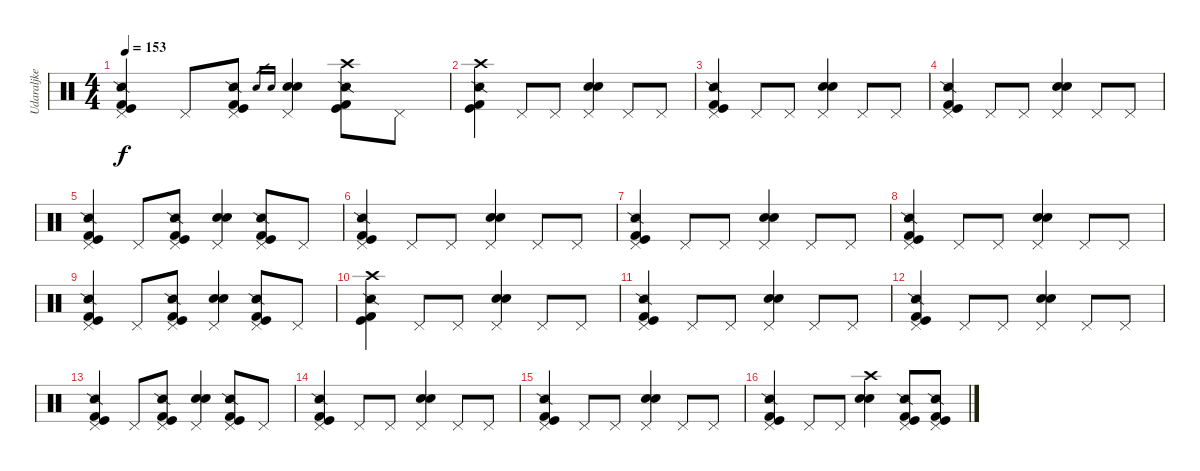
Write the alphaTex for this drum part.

\track ("Udaraljke" "Udaraljke") {instrument percussion}
\staff {score}
\articulation defaults
\ts (4 4)
\tempo 153
\clef neutral
\ks c
("Pedal Hi-Hat (hit)" "Kick (hit) 2" "Kick (hit)" "Snare (side stick) 2").4{dy f} "Pedal Hi-Hat (hit)".8 ("Pedal Hi-Hat (hit)" "Kick (hit) 2" "Kick (hit)" "Snare (side stick) 2").8 "Electric Snare (hit)".16{gr} "Snare (hit) 2".16{gr} ("Pedal Hi-Hat (hit)" "Electric Snare (hit)" "Snare (hit) 2").4 ("Crash high (hit)" "Kick (hit) 2" "Kick (hit)" "Snare (side stick) 2").8 "Pedal Hi-Hat (hit)".8 |
("Crash high (hit)" "Kick (hit) 2" "Kick (hit)" "Snare (side stick) 2").4 "Pedal Hi-Hat (hit)".8 "Pedal Hi-Hat (hit)".8 ("Pedal Hi-Hat (hit)" "Electric Snare (hit)" "Snare (hit) 2").4 "Pedal Hi-Hat (hit)".8 "Pedal Hi-Hat (hit)".8 |
("Pedal Hi-Hat (hit)" "Kick (hit) 2" "Kick (hit)" "Snare (side stick) 2").4 "Pedal Hi-Hat (hit)".8 "Pedal Hi-Hat (hit)".8 ("Pedal Hi-Hat (hit)" "Electric Snare (hit)" "Snare (hit) 2").4 "Pedal Hi-Hat (hit)".8 "Pedal Hi-Hat (hit)".8 |
("Pedal Hi-Hat (hit)" "Kick (hit) 2" "Kick (hit)" "Snare (side stick) 2").4 "Pedal Hi-Hat (hit)".8 "Pedal Hi-Hat (hit)".8 ("Pedal Hi-Hat (hit)" "Electric Snare (hit)" "Snare (hit) 2").4 "Pedal Hi-Hat (hit)".8 "Pedal Hi-Hat (hit)".8 |
("Pedal Hi-Hat (hit)" "Kick (hit) 2" "Kick (hit)" "Snare (side stick) 2").4 "Pedal Hi-Hat (hit)".8 ("Pedal Hi-Hat (hit)" "Kick (hit) 2" "Kick (hit)" "Snare (side stick) 2").8 ("Pedal Hi-Hat (hit)" "Electric Snare (hit)" "Snare (hit) 2").4 ("Pedal Hi-Hat (hit)" "Kick (hit) 2" "Kick (hit)" "Snare (side stick) 2").8 "Pedal Hi-Hat (hit)".8 |
("Pedal Hi-Hat (hit)" "Kick (hit) 2" "Kick (hit)" "Snare (side stick) 2").4 "Pedal Hi-Hat (hit)".8 "Pedal Hi-Hat (hit)".8 ("Pedal Hi-Hat (hit)" "Electric Snare (hit)" "Snare (hit) 2").4 "Pedal Hi-Hat (hit)".8 "Pedal Hi-Hat (hit)".8 |
("Pedal Hi-Hat (hit)" "Kick (hit) 2" "Kick (hit)" "Snare (side stick) 2").4 "Pedal Hi-Hat (hit)".8 "Pedal Hi-Hat (hit)".8 ("Pedal Hi-Hat (hit)" "Electric Snare (hit)" "Snare (hit) 2").4 "Pedal Hi-Hat (hit)".8 "Pedal Hi-Hat (hit)".8 |
("Pedal Hi-Hat (hit)" "Kick (hit) 2" "Kick (hit)" "Snare (side stick) 2").4 "Pedal Hi-Hat (hit)".8 "Pedal Hi-Hat (hit)".8 ("Pedal Hi-Hat (hit)" "Electric Snare (hit)" "Snare (hit) 2").4 "Pedal Hi-Hat (hit)".8 "Pedal Hi-Hat (hit)".8 |
("Pedal Hi-Hat (hit)" "Kick (hit) 2" "Kick (hit)" "Snare (side stick) 2").4 "Pedal Hi-Hat (hit)".8 ("Pedal Hi-Hat (hit)" "Kick (hit) 2" "Kick (hit)" "Snare (side stick) 2").8 ("Pedal Hi-Hat (hit)" "Electric Snare (hit)" "Snare (hit) 2").4 ("Pedal Hi-Hat (hit)" "Kick (hit) 2" "Kick (hit)" "Snare (side stick) 2").8 "Pedal Hi-Hat (hit)".8 |
("Crash high (hit)" "Kick (hit) 2" "Kick (hit)" "Snare (side stick) 2").4 "Pedal Hi-Hat (hit)".8 "Pedal Hi-Hat (hit)".8 ("Pedal Hi-Hat (hit)" "Electric Snare (hit)" "Snare (hit) 2").4 "Pedal Hi-Hat (hit)".8 "Pedal Hi-Hat (hit)".8 |
("Pedal Hi-Hat (hit)" "Kick (hit) 2" "Kick (hit)" "Snare (side stick) 2").4 "Pedal Hi-Hat (hit)".8 "Pedal Hi-Hat (hit)".8 ("Pedal Hi-Hat (hit)" "Electric Snare (hit)" "Snare (hit) 2").4 "Pedal Hi-Hat (hit)".8 "Pedal Hi-Hat (hit)".8 |
("Pedal Hi-Hat (hit)" "Kick (hit) 2" "Kick (hit)" "Snare (side stick) 2").4 "Pedal Hi-Hat (hit)".8 "Pedal Hi-Hat (hit)".8 ("Pedal Hi-Hat (hit)" "Electric Snare (hit)" "Snare (hit) 2").4 "Pedal Hi-Hat (hit)".8 "Pedal Hi-Hat (hit)".8 |
("Pedal Hi-Hat (hit)" "Kick (hit) 2" "Kick (hit)" "Snare (side stick) 2").4 "Pedal Hi-Hat (hit)".8 ("Pedal Hi-Hat (hit)" "Kick (hit) 2" "Kick (hit)" "Snare (side stick) 2").8 ("Pedal Hi-Hat (hit)" "Electric Snare (hit)" "Snare (hit) 2").4 ("Pedal Hi-Hat (hit)" "Kick (hit) 2" "Kick (hit)" "Snare (side stick) 2").8 "Pedal Hi-Hat (hit)".8 |
("Pedal Hi-Hat (hit)" "Kick (hit) 2" "Kick (hit)" "Snare (side stick) 2").4 "Pedal Hi-Hat (hit)".8 "Pedal Hi-Hat (hit)".8 ("Pedal Hi-Hat (hit)" "Electric Snare (hit)" "Snare (hit) 2").4 "Pedal Hi-Hat (hit)".8 "Pedal Hi-Hat (hit)".8 |
("Pedal Hi-Hat (hit)" "Kick (hit) 2" "Kick (hit)" "Snare (side stick) 2").4 "Pedal Hi-Hat (hit)".8 "Pedal Hi-Hat (hit)".8 ("Pedal Hi-Hat (hit)" "Electric Snare (hit)" "Snare (hit) 2").4 "Pedal Hi-Hat (hit)".8 "Pedal Hi-Hat (hit)".8 |
("Pedal Hi-Hat (hit)" "Kick (hit) 2" "Kick (hit)" "Snare (side stick) 2").4 "Pedal Hi-Hat (hit)".8 "Pedal Hi-Hat (hit)".8 ("Crash high (hit)" "Electric Snare (hit)" "Snare (hit) 2").4 ("Pedal Hi-Hat (hit)" "Kick (hit) 2" "Kick (hit)" "Snare (side stick) 2").8 ("Pedal Hi-Hat (hit)" "Kick (hit) 2" "Kick (hit)" "Snare (side stick) 2").8
